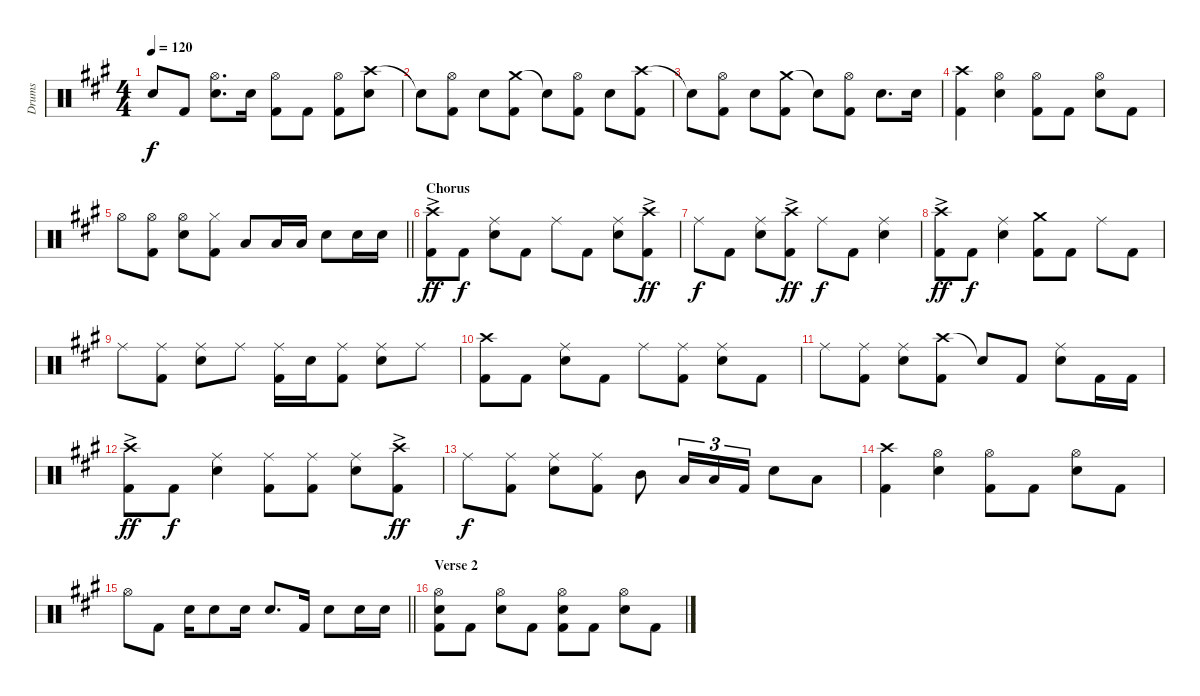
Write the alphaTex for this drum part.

\track ("Drums" "Drums") {instrument percussion}
\staff {score}
\articulation defaults
\ts (4 4)
\tempo 120
\clef neutral
\ks a "Snare (hit)"{t}.8{dy f} "Kick (hit) 2".8
("Hi-Hat (open)" "Snare (hit) 2").8{d} "Snare (hit) 2".16 ("Hi-Hat (open)" "Kick (hit) 2").8 "Kick (hit) 2".8 ("Hi-Hat (open)" "Kick (hit) 2").8 ("Crash high (hit)" "Snare (hit) 2").8 |
"Snare (hit)"{t}.8 ("Hi-Hat (open)" "Kick (hit) 2").8 "Snare (hit) 2".8 ("Crash medium (hit)" "Kick (hit) 2").8 "Snare (hit)"{t}.8 ("Hi-Hat (open)" "Kick (hit) 2").8 "Snare (hit) 2".8 ("Crash high (hit)" "Kick (hit) 2").8 |
"Snare (hit)"{t}.8 ("Hi-Hat (open)" "Kick (hit) 2").8 "Snare (hit) 2".8 ("Crash medium (hit)" "Kick (hit) 2").8 "Snare (hit)"{t}.8 ("Hi-Hat (open)" "Kick (hit) 2").8 "Snare (hit) 2".8{d} "Snare (hit) 2".16 |
("Crash high (hit)" "Kick (hit) 2").4 ("Hi-Hat (open)" "Snare (hit) 2").4 ("Hi-Hat (open)" "Kick (hit) 2").8 "Kick (hit) 2".8 ("Hi-Hat (open)" "Snare (hit) 2").8 "Kick (hit) 2".8 |
\barLineRight lightlight "Hi-Hat (open)".8
("Hi-Hat (open)" "Kick (hit) 2").8 ("Hi-Hat (open)" "Snare (hit) 2").8 ("Hi-Hat (closed)" "Kick (hit) 2").8 "Low Tom (hit)".8 "Low Tom (hit)".16 "Low Tom (hit)".16 "Snare (hit) 2".8 "Snare (hit) 2".16 "Snare (hit) 2".16 |
\section ("" "Chorus")
("Crash high (hit)"{ac} "Kick (hit) 2").8{dy ff} "Kick (hit) 2".8{dy f} ("Ride (middle)" "Snare (hit) 2").8 "Kick (hit) 2".8 "Ride (middle)".8 "Kick (hit) 2".8 ("Ride (middle)" "Snare (hit) 2").8 ("Crash high (hit)"{ac} "Kick (hit) 2").8{dy ff} |
"Ride (middle)".8{dy f} "Kick (hit) 2".8 ("Ride (middle)" "Snare (hit) 2").8 ("Crash high (hit)"{ac} "Kick (hit) 2").8{dy ff} "Ride (middle)".8{dy f} "Kick (hit) 2".8 ("Ride (middle)" "Snare (hit) 2").4 |
("Crash high (hit)"{ac} "Kick (hit) 2").8{dy ff} "Kick (hit) 2".8{dy f} ("Ride (middle)" "Snare (hit) 2").4 ("Crash medium (hit)" "Kick (hit) 2").8 "Kick (hit) 2".8 "Ride (middle)".8 "Kick (hit) 2".8 |
"Ride (middle)".8 ("Ride (middle)" "Kick (hit) 2").8 ("Ride (middle)" "Snare (hit) 2").8 "Ride (middle)".8 ("Ride (middle)" "Kick (hit) 2").16 "Snare (hit) 2".16 ("Ride (middle)" "Kick (hit) 2").8 ("Ride (middle)" "Snare (hit) 2").8 "Ride (middle)".8 |
("Crash high (hit)" "Kick (hit) 2").8 "Kick (hit) 2".8 ("Ride (middle)" "Snare (hit) 2").8 "Kick (hit) 2".8 "Ride (middle)".8 ("Ride (middle)" "Kick (hit) 2").8 ("Ride (middle)" "Snare (hit) 2").8 "Kick (hit) 2".8 |
"Ride (middle)".8 ("Ride (middle)" "Kick (hit) 2").8 ("Ride (middle)" "Snare (hit) 2").8 ("Crash high (hit)" "Kick (hit) 2").8 "Snare (hit)"{t}.8 "Kick (hit) 2".8 ("Ride (middle)" "Snare (hit) 2").8 "Kick (hit) 2".16 "Kick (hit) 2".16 |
("Crash high (hit)"{ac} "Kick (hit) 2").8{dy ff} "Kick (hit) 2".8{dy f} ("Ride (middle)" "Snare (hit) 2").4 ("Ride (middle)" "Kick (hit) 2").8 ("Ride (middle)" "Kick (hit) 2").8 ("Ride (middle)" "Snare (hit) 2").8 ("Crash high (hit)"{ac} "Kick (hit) 2").8{dy ff} |
"Ride (middle)".8{dy f} ("Ride (middle)" "Kick (hit) 2").8 ("Ride (middle)" "Snare (hit) 2").8 ("Ride (middle)" "Kick (hit) 2").8 "Mid Tom (hit)".8 "Low Tom (hit)".16{tu (3 2)} "Low Tom (hit)".16{tu (3 2)} "Kick (hit) 2".16{tu (3 2)} "Snare (hit) 2".8 "Low Tom (hit)".8 |
("Crash high (hit)" "Kick (hit) 2").4 ("Hi-Hat (open)" "Snare (hit) 2").4 ("Hi-Hat (open)" "Kick (hit) 2").8 "Kick (hit) 2".8 ("Hi-Hat (open)" "Snare (hit) 2").8 "Kick (hit) 2".8 |
\barLineRight lightlight "Hi-Hat (open)".8 "Kick (hit) 2".8 "Snare (hit) 2".16 "Snare (hit) 2".8 "Snare (hit) 2".16 "Snare (hit) 2".8{d} "Kick (hit) 2".16 "Snare (hit) 2".8 "Snare (hit) 2".16 "Snare (hit) 2".16
|
\section ("" "Verse 2")
("Hi-Hat (open)" "Snare (hit) 2" "Kick (hit) 2").8 "Kick (hit) 2".8 ("Hi-Hat (open)" "Snare (hit) 2").8 "Kick (hit) 2".8 ("Hi-Hat (open)" "Snare (hit) 2" "Kick (hit) 2").8 "Kick (hit) 2".8 ("Hi-Hat (open)" "Snare (hit) 2").8 "Kick (hit) 2".8
